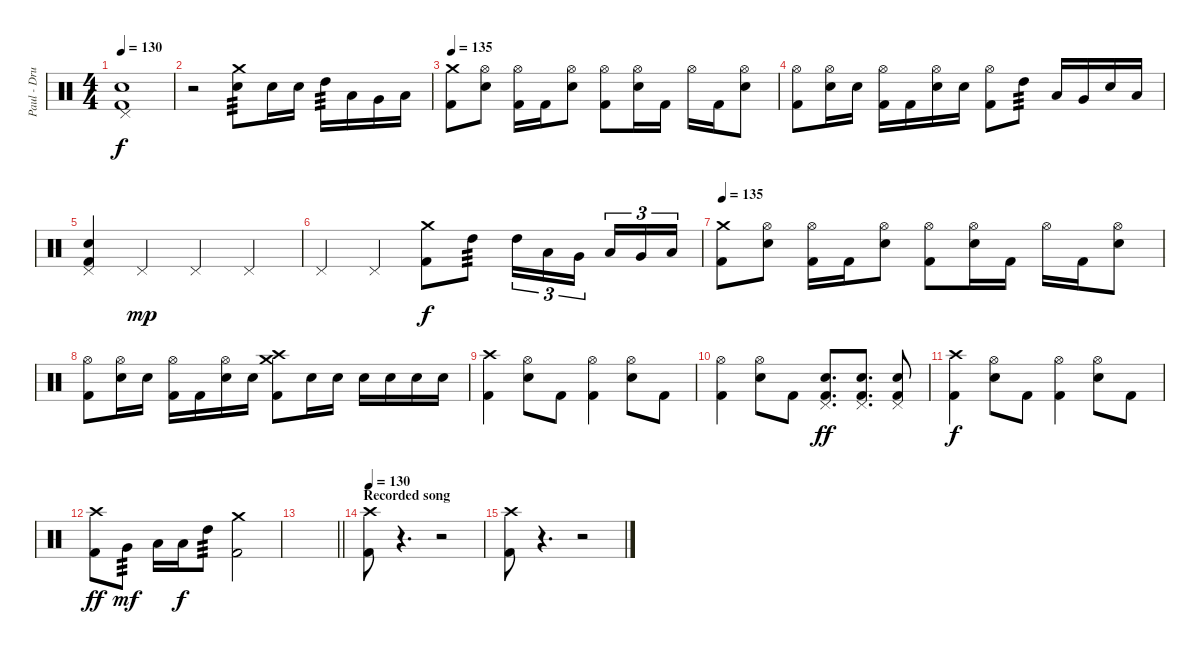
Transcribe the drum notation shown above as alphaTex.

\track ("Paul - Drums" "Paul - Dru") {instrument percussion}
\staff {score}
\articulation defaults
\ts (4 4)
\tempo 130
\clef neutral
\ks c
("Pedal Hi-Hat (hit)" "Electric Snare (hit)" "Kick (hit) 2").1{dy f} |
r.2 ("Crash medium (hit)" "Electric Snare (hit)").8{tp 3} "Electric Snare (hit)".16 "Electric Snare (hit)".16 "High Tom (hit)".16{tp 3} "Low Tom (hit)".16 "Very Low Tom (hit)".16 "Low Floor Tom (hit)".16 |
\tempo 135
("Crash medium (hit)" "Kick (hit) 2").8 ("Hi-Hat (open)" "Electric Snare (hit)").8 ("Hi-Hat (open)" "Kick (hit) 2").16 "Kick (hit) 2".16 ("Hi-Hat (open)" "Electric Snare (hit)").8 ("Hi-Hat (open)" "Kick (hit) 2").8 ("Hi-Hat (open)" "Electric Snare (hit)").16 "Kick (hit) 2".16 "Hi-Hat (open)".16 "Kick (hit) 2".16 ("Hi-Hat (open)" "Electric Snare (hit)").8 |
("Hi-Hat (open)" "Kick (hit) 2").8 ("Hi-Hat (open)" "Electric Snare (hit)").16 "Electric Snare (hit)".16 ("Hi-Hat (open)" "Kick (hit) 2").16 "Kick (hit) 2".16 ("Hi-Hat (open)" "Electric Snare (hit)").16 "Electric Snare (hit)".16 ("Hi-Hat (open)" "Kick (hit) 2").8 "High Tom (hit)".8{tp 3} "Low Tom (hit)".16 "Very Low Tom (hit)".16 "Electric Snare (hit)".16 "Low Tom (hit)".16 |
("Pedal Hi-Hat (hit)" "Electric Snare (hit)" "Kick (hit) 2").4 "Pedal Hi-Hat (hit)".4{dy mp} "Pedal Hi-Hat (hit)".4 "Pedal Hi-Hat (hit)".4 |
"Pedal Hi-Hat (hit)".4 "Pedal Hi-Hat (hit)".4 ("Crash medium (hit)" "Kick (hit) 2").8{dy f} "High Tom (hit)".8{tp 3} "High Tom (hit)".16{tu (3 2)} "Low Tom (hit)".16{tu (3 2)} "Very Low Tom (hit)".16{tu (3 2) beam splitsecondary} "Low Tom (hit)".16{tu (3 2)} "Very Low Tom (hit)".16{tu (3 2)} "Low Floor Tom (hit)".16{tu (3 2)} |
\tempo 135
("Crash medium (hit)" "Kick (hit) 2").8 ("Hi-Hat (open)" "Electric Snare (hit)").8 ("Hi-Hat (open)" "Kick (hit) 2").16 "Kick (hit) 2".16 ("Hi-Hat (open)" "Electric Snare (hit)").8 ("Hi-Hat (open)" "Kick (hit) 2").8 ("Hi-Hat (open)" "Electric Snare (hit)").16 "Kick (hit) 2".16 "Hi-Hat (open)".16 "Kick (hit) 2".16 ("Hi-Hat (open)" "Electric Snare (hit)").8 |
("Hi-Hat (open)" "Kick (hit) 2").8 ("Hi-Hat (open)" "Electric Snare (hit)").16 "Electric Snare (hit)".16 ("Hi-Hat (open)" "Kick (hit) 2").16 "Kick (hit) 2".16 ("Hi-Hat (open)" "Electric Snare (hit)").16 "Electric Snare (hit)".16 ("Crash high (hit)" "Crash medium (hit)" "Kick (hit) 2").8 "Electric Snare (hit)".16 "Electric Snare (hit)".16 "Electric Snare (hit)".16 "Electric Snare (hit)".16 "Electric Snare (hit)".16 "Electric Snare (hit)".16 |
("Crash high (hit)" "Kick (hit) 2").4 ("Hi-Hat (open)" "Electric Snare (hit)").8 "Kick (hit) 2".8 ("Hi-Hat (open)" "Kick (hit) 2").4 ("Hi-Hat (open)" "Electric Snare (hit)").8 "Kick (hit) 2".8 |
("Hi-Hat (open)" "Kick (hit) 2").4 ("Hi-Hat (open)" "Electric Snare (hit)").8 "Kick (hit) 2".8 ("Pedal Hi-Hat (hit)" "Electric Snare (hit)" "Kick (hit) 2").8{d dy ff} ("Pedal Hi-Hat (hit)" "Electric Snare (hit)" "Kick (hit) 2").8{d} ("Pedal Hi-Hat (hit)" "Electric Snare (hit)" "Kick (hit) 2").8 |
("Crash high (hit)" "Kick (hit) 2").4{dy f} ("Hi-Hat (open)" "Electric Snare (hit)").8 "Kick (hit) 2".8 ("Hi-Hat (open)" "Kick (hit) 2").4 ("Hi-Hat (open)" "Electric Snare (hit)").8 "Kick (hit) 2".8 |
("Crash high (hit)" "Kick (hit) 2").8{dy ff} "Very Low Tom (hit)".8{tp 3 dy mf} "Low Tom (hit)".16 "Low Tom (hit)".16{dy f} "High Tom (hit)".8{tp 3} ("Crash medium (hit)" "Kick (hit) 2").2 |
\barLineRight lightlight
|
\section ("" "Recorded song")
\tempo 130
("Crash high (hit)" "Kick (hit) 2").8{volume 12} r.4{d volume 0} r.2 |
("Crash high (hit)" "Kick (hit) 2").8{volume 12} r.4{d volume 0} r.2
